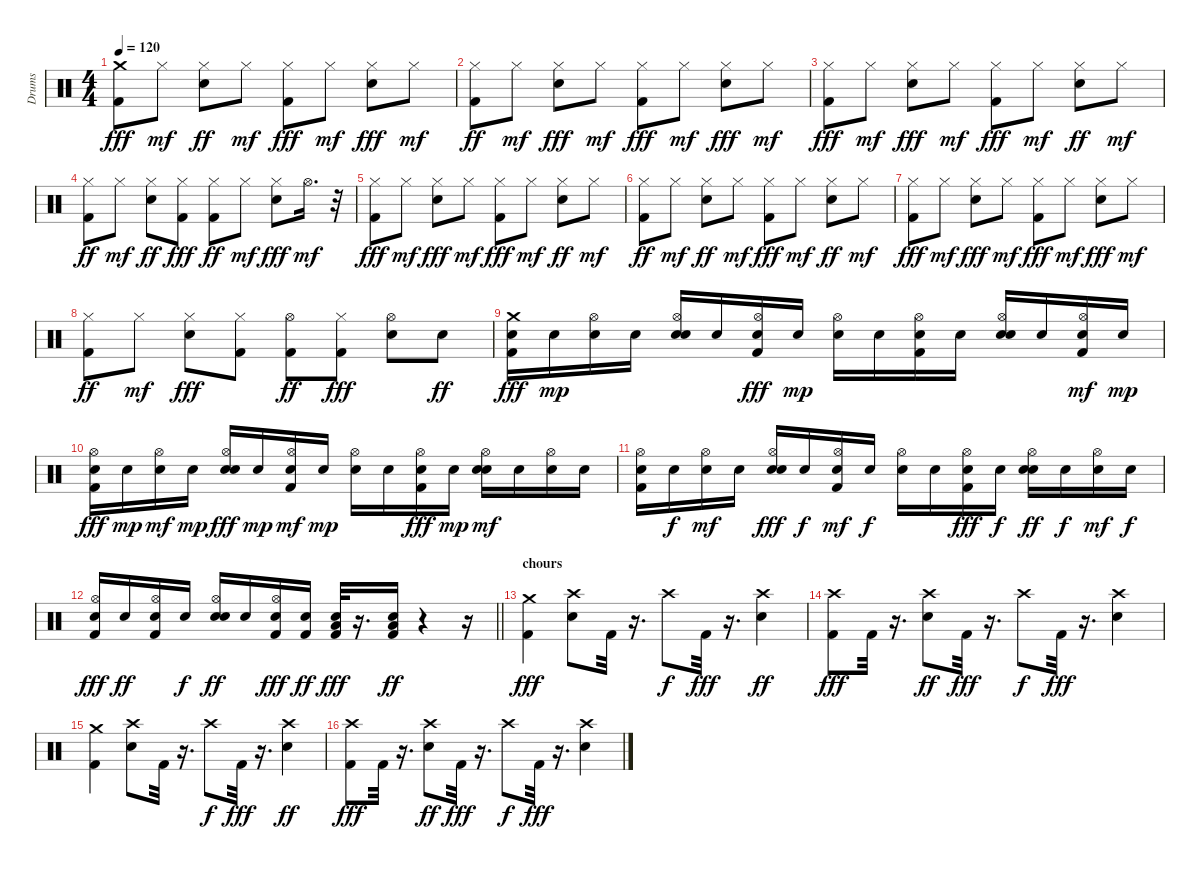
\track ("Drums" "Drums") {instrument percussion}
\staff {score}
\articulation defaults
\ts (4 4)
\tempo 120
\clef neutral
\ks c
("Kick (hit) 2" "Crash medium (hit)").8{dy fff} "Hi-Hat (closed)".8{dy mf} ("Hi-Hat (closed)" "Snare (hit) 2").8{dy ff} "Hi-Hat (closed)".8{dy mf} ("Hi-Hat (closed)" "Kick (hit) 2").8{dy fff} "Hi-Hat (closed)".8{dy mf} ("Snare (hit) 2" "Hi-Hat (closed)").8{dy fff} "Hi-Hat (closed)".8{dy mf} |
("Kick (hit) 2" "Hi-Hat (closed)").8{dy ff} "Hi-Hat (closed)".8{dy mf} ("Hi-Hat (closed)" "Snare (hit) 2").8{dy fff} "Hi-Hat (closed)".8{dy mf} ("Hi-Hat (closed)" "Kick (hit) 2").8{dy fff} "Hi-Hat (closed)".8{dy mf} ("Hi-Hat (closed)" "Snare (hit) 2").8{dy fff} "Hi-Hat (closed)".8{dy mf} |
("Hi-Hat (closed)" "Kick (hit) 2").8{dy fff} "Hi-Hat (closed)".8{dy mf} ("Hi-Hat (closed)" "Snare (hit) 2").8{dy fff} "Hi-Hat (closed)".8{dy mf} ("Kick (hit) 2" "Hi-Hat (closed)").8{dy fff} "Hi-Hat (closed)".8{dy mf} ("Snare (hit) 2" "Hi-Hat (closed)").8{dy ff} "Hi-Hat (closed)".8{dy mf} |
("Kick (hit) 2" "Hi-Hat (closed)").8{dy ff} "Hi-Hat (closed)".8{dy mf} ("Hi-Hat (closed)" "Snare (hit) 2").8{dy ff} ("Hi-Hat (closed)" "Kick (hit) 2").8{dy fff} ("Hi-Hat (closed)" "Kick (hit) 2").8{dy ff} "Hi-Hat (closed)".8{dy mf} ("Hi-Hat (closed)" "Snare (hit) 2").8{dy fff} "Hi-Hat (open)".16{d dy mf} r.32 |
("Kick (hit) 2" "Hi-Hat (closed)").8{dy fff} "Hi-Hat (closed)".8{dy mf} ("Hi-Hat (closed)" "Snare (hit) 2").8{dy fff} "Hi-Hat (closed)".8{dy mf} ("Hi-Hat (closed)" "Kick (hit) 2").8{dy fff} "Hi-Hat (closed)".8{dy mf} ("Hi-Hat (closed)" "Snare (hit) 2").8{dy ff} "Hi-Hat (closed)".8{dy mf} |
("Kick (hit) 2" "Hi-Hat (closed)").8{dy ff} "Hi-Hat (closed)".8{dy mf} ("Hi-Hat (closed)" "Snare (hit) 2").8{dy ff} "Hi-Hat (closed)".8{dy mf} ("Kick (hit) 2" "Hi-Hat (closed)").8{dy fff} "Hi-Hat (closed)".8{dy mf} ("Hi-Hat (closed)" "Snare (hit) 2").8{dy ff} "Hi-Hat (closed)".8{dy mf} |
("Hi-Hat (closed)" "Kick (hit) 2").8{dy fff} "Hi-Hat (closed)".8{dy mf} ("Hi-Hat (closed)" "Snare (hit) 2").8{dy fff} "Hi-Hat (closed)".8{dy mf} ("Kick (hit) 2" "Hi-Hat (closed)").8{dy fff} "Hi-Hat (closed)".8{dy mf} ("Hi-Hat (closed)" "Snare (hit) 2").8{dy fff} "Hi-Hat (closed)".8{dy mf} |
("Kick (hit) 2" "Hi-Hat (closed)").8{dy ff} "Hi-Hat (closed)".8{dy mf} ("Hi-Hat (closed)" "Snare (hit) 2").8{dy fff} ("Hi-Hat (closed)" "Kick (hit) 2").8 ("Hi-Hat (open)" "Kick (hit) 2").8{dy ff} ("Hi-Hat (closed)" "Kick (hit) 2").8{dy fff} ("Hi-Hat (open)" "Snare (hit) 2").8 "Snare (hit) 2".8{dy ff} |
("Electric Snare (hit)" "Crash medium (hit)" "Kick (hit) 2").16{dy fff} "Electric Snare (hit)".16{dy mp} ("Hi-Hat (open)" "Electric Snare (hit)").16 "Electric Snare (hit)".16 ("Hi-Hat (open)" "Snare (hit) 2" "Electric Snare (hit)").16 "Electric Snare (hit)".16 ("Hi-Hat (open)" "Electric Snare (hit)" "Kick (hit) 2").16{dy fff} "Electric Snare (hit)".16{dy mp} ("Hi-Hat (open)" "Electric Snare (hit)").16 "Electric Snare (hit)".16 ("Hi-Hat (open)" "Kick (hit) 2" "Electric Snare (hit)").16 "Electric Snare (hit)".16 ("Hi-Hat (open)" "Snare (hit) 2" "Electric Snare (hit)").16 "Electric Snare (hit)".16 ("Kick (hit) 2" "Electric Snare (hit)" "Hi-Hat (open)").16{dy mf} "Electric Snare (hit)".16{dy mp} |
("Electric Snare (hit)" "Kick (hit) 2" "Hi-Hat (open)").16{dy fff} "Electric Snare (hit)".16{dy mp} ("Electric Snare (hit)" "Hi-Hat (open)").16{dy mf} "Electric Snare (hit)".16{dy mp} ("Electric Snare (hit)" "Snare (hit) 2" "Hi-Hat (open)").16{dy fff} "Electric Snare (hit)".16{dy mp} ("Electric Snare (hit)" "Kick (hit) 2" "Hi-Hat (open)").16{dy mf} "Electric Snare (hit)".16{dy mp} ("Electric Snare (hit)" "Hi-Hat (open)").16 "Electric Snare (hit)".16 ("Hi-Hat (open)" "Electric Snare (hit)" "Kick (hit) 2").16{dy fff} "Electric Snare (hit)".16{dy mp} ("Hi-Hat (open)" "Snare (hit) 2" "Electric Snare (hit)").16{dy mf} "Electric Snare (hit)".16 ("Hi-Hat (open)" "Electric Snare (hit)").16 "Electric Snare (hit)".16 |
("Hi-Hat (open)" "Kick (hit) 2" "Electric Snare (hit)").16 "Electric Snare (hit)".16{dy f} ("Hi-Hat (open)" "Electric Snare (hit)").16{dy mf} "Electric Snare (hit)".16 ("Hi-Hat (open)" "Electric Snare (hit)" "Snare (hit) 2").16{dy fff} "Electric Snare (hit)".16{dy f} ("Kick (hit) 2" "Electric Snare (hit)" "Hi-Hat (open)").16{dy mf} "Electric Snare (hit)".16{dy f} ("Hi-Hat (open)" "Electric Snare (hit)").16 "Electric Snare (hit)".16 ("Hi-Hat (open)" "Electric Snare (hit)" "Kick (hit) 2").16{dy fff} "Electric Snare (hit)".16{dy f} ("Hi-Hat (open)" "Electric Snare (hit)" "Snare (hit) 2").16{dy ff} "Electric Snare (hit)".16{dy f} ("Electric Snare (hit)" "Hi-Hat (open)").16{dy mf} "Electric Snare (hit)".16{dy f} |
\barLineRight lightlight
("Hi-Hat (open)" "Kick (hit) 2" "Electric Snare (hit)").16{dy fff} "Electric Snare (hit)".16{dy ff} ("Electric Snare (hit)" "Hi-Hat (open)" "Kick (hit) 2").16 "Electric Snare (hit)".16{dy f} ("Snare (hit) 2" "Hi-Hat (open)" "Electric Snare (hit)").16{dy ff} "Electric Snare (hit)".16 ("Hi-Hat (open)" "Electric Snare (hit)" "Kick (hit) 2").16{dy fff} ("Kick (hit) 2" "Electric Snare (hit)").16{dy ff} ("Low Floor Tom (hit)" "Snare (hit) 2" "Kick (hit) 2").32{dy fff} r.16{d} ("Low Floor Tom (hit)" "Kick (hit) 2" "Snare (hit) 2").16{dy ff} r.4 r.16 |
\section ("" "chours")
("Crash medium (hit)" "Kick (hit) 2").4{dy fff} ("Crash high (hit)" "Snare (hit) 2").8 "Kick (hit) 2".32 r.16{d} "Crash high (hit)".8{dy f} "Kick (hit) 2".32{dy fff} r.16{d} ("Crash high (hit)" "Snare (hit) 2").4{dy ff} |
("Crash high (hit)" "Kick (hit) 2").8{dy fff} "Kick (hit) 2".32 r.16{d} ("Crash high (hit)" "Snare (hit) 2").8{dy ff} "Kick (hit) 2".32{dy fff} r.16{d} "Crash high (hit)".8{dy f} "Kick (hit) 2".32{dy fff} r.16{d} ("Crash high (hit)" "Snare (hit) 2").4 |
("Crash medium (hit)" "Kick (hit) 2").4 ("Crash high (hit)" "Snare (hit) 2").8 "Kick (hit) 2".32 r.16{d} "Crash high (hit)".8{dy f} "Kick (hit) 2".32{dy fff} r.16{d} ("Crash high (hit)" "Snare (hit) 2").4{dy ff} |
("Crash high (hit)" "Kick (hit) 2").8{dy fff} "Kick (hit) 2".32 r.16{d} ("Crash high (hit)" "Snare (hit) 2").8{dy ff} "Kick (hit) 2".32{dy fff} r.16{d} "Crash high (hit)".8{dy f} "Kick (hit) 2".32{dy fff} r.16{d} ("Crash high (hit)" "Snare (hit) 2").4
